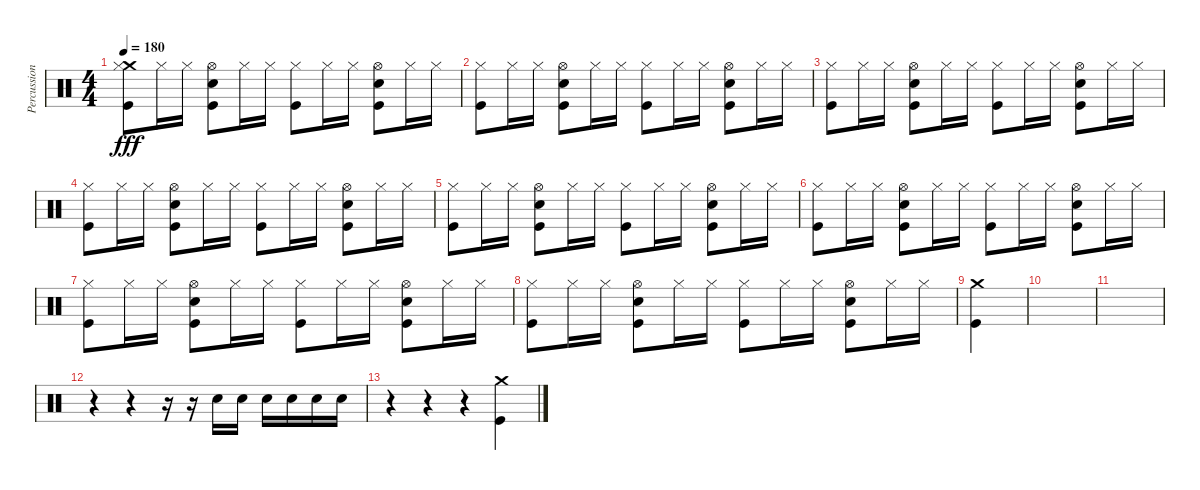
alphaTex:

\track ("Percussion" "Percussion") {instrument percussion}
\staff {score}
\articulation defaults
\ts (4 4)
\tempo 180
\clef neutral
\ks c
("Crash medium (hit)" "Kick (hit)" "Hi-Hat (closed)").8{dy fff} "Hi-Hat (closed)".16 "Hi-Hat (closed)".16 ("Electric Snare (hit)" "Kick (hit)" "Hi-Hat (open)").8 "Hi-Hat (closed)".16 "Hi-Hat (closed)".16 ("Kick (hit)" "Hi-Hat (closed)").8 "Hi-Hat (closed)".16 "Hi-Hat (closed)".16 ("Electric Snare (hit)" "Kick (hit)" "Hi-Hat (open)").8 "Hi-Hat (closed)".16 "Hi-Hat (closed)".16 |
("Kick (hit)" "Hi-Hat (closed)").8 "Hi-Hat (closed)".16 "Hi-Hat (closed)".16 ("Electric Snare (hit)" "Kick (hit)" "Hi-Hat (open)").8 "Hi-Hat (closed)".16 "Hi-Hat (closed)".16 ("Kick (hit)" "Hi-Hat (closed)").8 "Hi-Hat (closed)".16 "Hi-Hat (closed)".16 ("Electric Snare (hit)" "Kick (hit)" "Hi-Hat (open)").8 "Hi-Hat (closed)".16 "Hi-Hat (closed)".16 |
("Kick (hit)" "Hi-Hat (closed)").8 "Hi-Hat (closed)".16 "Hi-Hat (closed)".16 ("Electric Snare (hit)" "Kick (hit)" "Hi-Hat (open)").8 "Hi-Hat (closed)".16 "Hi-Hat (closed)".16 ("Kick (hit)" "Hi-Hat (closed)").8 "Hi-Hat (closed)".16 "Hi-Hat (closed)".16 ("Electric Snare (hit)" "Kick (hit)" "Hi-Hat (open)").8 "Hi-Hat (closed)".16 "Hi-Hat (closed)".16 |
("Kick (hit)" "Hi-Hat (closed)").8 "Hi-Hat (closed)".16 "Hi-Hat (closed)".16 ("Electric Snare (hit)" "Kick (hit)" "Hi-Hat (open)").8 "Hi-Hat (closed)".16 "Hi-Hat (closed)".16 ("Kick (hit)" "Hi-Hat (closed)").8 "Hi-Hat (closed)".16 "Hi-Hat (closed)".16 ("Electric Snare (hit)" "Kick (hit)" "Hi-Hat (open)").8 "Hi-Hat (closed)".16 "Hi-Hat (closed)".16 |
("Kick (hit)" "Hi-Hat (closed)").8 "Hi-Hat (closed)".16 "Hi-Hat (closed)".16 ("Electric Snare (hit)" "Kick (hit)" "Hi-Hat (open)").8 "Hi-Hat (closed)".16 "Hi-Hat (closed)".16 ("Kick (hit)" "Hi-Hat (closed)").8 "Hi-Hat (closed)".16 "Hi-Hat (closed)".16 ("Electric Snare (hit)" "Kick (hit)" "Hi-Hat (open)").8 "Hi-Hat (closed)".16 "Hi-Hat (closed)".16 |
("Kick (hit)" "Hi-Hat (closed)").8 "Hi-Hat (closed)".16 "Hi-Hat (closed)".16 ("Electric Snare (hit)" "Kick (hit)" "Hi-Hat (open)").8 "Hi-Hat (closed)".16 "Hi-Hat (closed)".16 ("Kick (hit)" "Hi-Hat (closed)").8 "Hi-Hat (closed)".16 "Hi-Hat (closed)".16 ("Electric Snare (hit)" "Kick (hit)" "Hi-Hat (open)").8 "Hi-Hat (closed)".16 "Hi-Hat (closed)".16 |
("Kick (hit)" "Hi-Hat (closed)").8 "Hi-Hat (closed)".16 "Hi-Hat (closed)".16 ("Electric Snare (hit)" "Kick (hit)" "Hi-Hat (open)").8 "Hi-Hat (closed)".16 "Hi-Hat (closed)".16 ("Kick (hit)" "Hi-Hat (closed)").8 "Hi-Hat (closed)".16 "Hi-Hat (closed)".16 ("Electric Snare (hit)" "Kick (hit)" "Hi-Hat (open)").8 "Hi-Hat (closed)".16 "Hi-Hat (closed)".16 |
("Kick (hit)" "Hi-Hat (closed)").8 "Hi-Hat (closed)".16 "Hi-Hat (closed)".16 ("Electric Snare (hit)" "Kick (hit)" "Hi-Hat (open)").8 "Hi-Hat (closed)".16 "Hi-Hat (closed)".16 ("Kick (hit)" "Hi-Hat (closed)").8 "Hi-Hat (closed)".16 "Hi-Hat (closed)".16 ("Electric Snare (hit)" "Kick (hit)" "Hi-Hat (open)").8 "Hi-Hat (closed)".16 "Hi-Hat (closed)".16 |
("Crash medium (hit)" "Kick (hit)").4 |
|
|
r.4 r.4 r.16 r.16 "Electric Snare (hit)".16 "Electric Snare (hit)".16 "Electric Snare (hit)".16 "Electric Snare (hit)".16 "Electric Snare (hit)".16 "Electric Snare (hit)".16 |
r.4 r.4 r.4 ("Crash medium (hit)" "Kick (hit)").4
